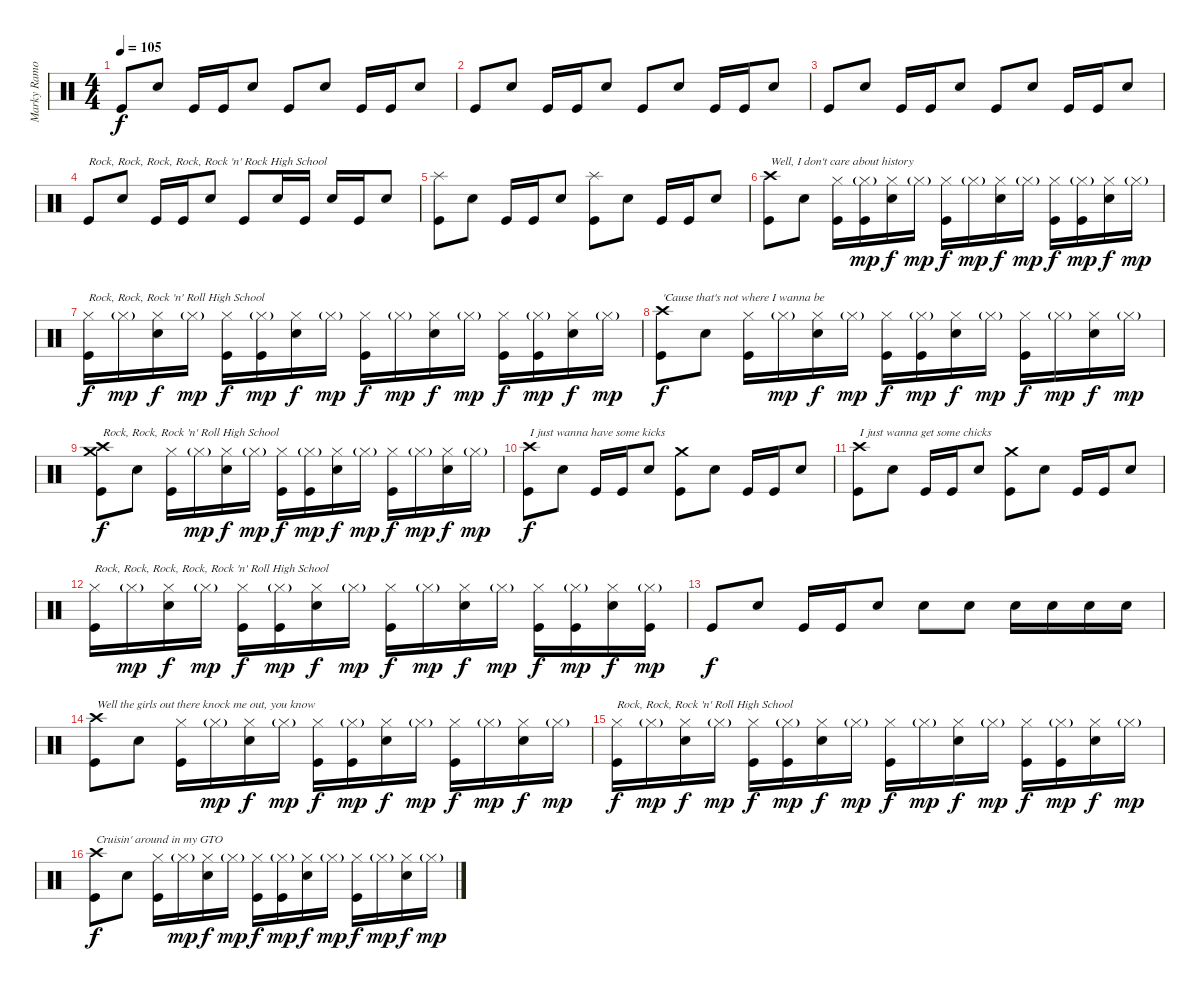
\track ("Marky Ramone - Drums" "Marky Ramo") {instrument percussion}
\staff {score}
\articulation defaults
\ts (4 4)
\tempo 105
\clef neutral
\ks c "Kick (hit)".8{dy f} "Snare (hit) 2".8 "Kick (hit)".16 "Kick (hit)".16 "Snare (hit) 2".8 "Kick (hit)".8 "Snare (hit) 2".8 "Kick (hit)".16 "Kick (hit)".16 "Snare (hit) 2".8
|
"Kick (hit)".8 "Snare (hit) 2".8 "Kick (hit)".16 "Kick (hit)".16 "Snare (hit) 2".8 "Kick (hit)".8 "Snare (hit) 2".8 "Kick (hit)".16 "Kick (hit)".16 "Snare (hit) 2".8 |
"Kick (hit)".8 "Snare (hit) 2".8 "Kick (hit)".16 "Kick (hit)".16 "Snare (hit) 2".8 "Kick (hit)".8 "Snare (hit) 2".8 "Kick (hit)".16 "Kick (hit)".16 "Snare (hit) 2".8 |
"Kick (hit)".8{txt "Rock, Rock, Rock, Rock, Rock 'n' Rock High School"} "Snare (hit) 2".8 "Kick (hit)".16 "Kick (hit)".16 "Snare (hit) 2".8 "Kick (hit)".8 "Snare (hit) 2".16 "Kick (hit)".16 "Snare (hit) 2".16 "Kick (hit)".16 "Snare (hit) 2".8 |
("Splash (hit)" "Kick (hit)").8 "Snare (hit) 2".8 "Kick (hit)".16 "Kick (hit)".16 "Snare (hit) 2".8 ("Splash (hit)" "Kick (hit)").8 "Snare (hit) 2".8 "Kick (hit)".16 "Kick (hit)".16 "Snare (hit) 2".8 |
("Crash high (hit)" "Kick (hit)").8{txt "Well, I don't care about history"} "Snare (hit) 2".8 ("Hi-Hat (closed)" "Kick (hit)").16 ("Hi-Hat (closed)"{g} "Kick (hit)").16{dy mp} ("Hi-Hat (closed)" "Snare (hit) 2").16{dy f} "Hi-Hat (closed)"{g}.16{dy mp} ("Hi-Hat (closed)" "Kick (hit)").16{dy f} "Hi-Hat (closed)"{g}.16{dy mp} ("Hi-Hat (closed)" "Snare (hit) 2").16{dy f} "Hi-Hat (closed)"{g}.16{dy mp} ("Hi-Hat (closed)" "Kick (hit)").16{dy f} ("Hi-Hat (closed)"{g} "Kick (hit)").16{dy mp} ("Hi-Hat (closed)" "Snare (hit) 2").16{dy f} "Hi-Hat (closed)"{g}.16{dy mp} |
("Hi-Hat (closed)" "Kick (hit)").16{txt "Rock, Rock, Rock 'n' Roll High School" dy f} "Hi-Hat (closed)"{g}.16{dy mp} ("Hi-Hat (closed)" "Snare (hit) 2").16{dy f} "Hi-Hat (closed)"{g}.16{dy mp} ("Hi-Hat (closed)" "Kick (hit)").16{dy f} ("Hi-Hat (closed)"{g} "Kick (hit)").16{dy mp} ("Hi-Hat (closed)" "Snare (hit) 2").16{dy f} "Hi-Hat (closed)"{g}.16{dy mp} ("Hi-Hat (closed)" "Kick (hit)").16{dy f} "Hi-Hat (closed)"{g}.16{dy mp} ("Hi-Hat (closed)" "Snare (hit) 2").16{dy f} "Hi-Hat (closed)"{g}.16{dy mp} ("Hi-Hat (closed)" "Kick (hit)").16{dy f} ("Hi-Hat (closed)"{g} "Kick (hit)").16{dy mp} ("Hi-Hat (closed)" "Snare (hit) 2").16{dy f} "Hi-Hat (closed)"{g}.16{dy mp} |
("Crash high (hit)" "Kick (hit)").8{txt "'Cause that's not where I wanna be" dy f} "Snare (hit) 2".8 ("Hi-Hat (closed)" "Kick (hit)").16 "Hi-Hat (closed)"{g}.16{dy mp} ("Hi-Hat (closed)" "Snare (hit) 2").16{dy f} "Hi-Hat (closed)"{g}.16{dy mp} ("Hi-Hat (closed)" "Kick (hit)").16{dy f} ("Hi-Hat (closed)"{g} "Kick (hit)").16{dy mp} ("Hi-Hat (closed)" "Snare (hit) 2").16{dy f} "Hi-Hat (closed)"{g}.16{dy mp} ("Hi-Hat (closed)" "Kick (hit)").16{dy f} "Hi-Hat (closed)"{g}.16{dy mp} ("Hi-Hat (closed)" "Snare (hit) 2").16{dy f} "Hi-Hat (closed)"{g}.16{dy mp} |
("Crash high (hit)" "Crash medium (hit)" "Kick (hit)").8{txt "Rock, Rock, Rock 'n' Roll High School" dy f} "Snare (hit) 2".8 ("Hi-Hat (closed)" "Kick (hit)").16 "Hi-Hat (closed)"{g}.16{dy mp} ("Hi-Hat (closed)" "Snare (hit) 2").16{dy f} "Hi-Hat (closed)"{g}.16{dy mp} ("Hi-Hat (closed)" "Kick (hit)").16{dy f} ("Hi-Hat (closed)"{g} "Kick (hit)").16{dy mp} ("Hi-Hat (closed)" "Snare (hit) 2").16{dy f} "Hi-Hat (closed)"{g}.16{dy mp} ("Hi-Hat (closed)" "Kick (hit)").16{dy f} "Hi-Hat (closed)"{g}.16{dy mp} ("Hi-Hat (closed)" "Snare (hit) 2").16{dy f} "Hi-Hat (closed)"{g}.16{dy mp} |
("Crash high (hit)" "Kick (hit)").8{txt "I just wanna have some kicks" dy f} "Snare (hit) 2".8 "Kick (hit)".16 "Kick (hit)".16 "Snare (hit) 2".8 ("Crash medium (hit)" "Kick (hit)").8 "Snare (hit) 2".8 "Kick (hit)".16 "Kick (hit)".16 "Snare (hit) 2".8 |
("Crash high (hit)" "Kick (hit)").8{txt "I just wanna get some chicks"} "Snare (hit) 2".8 "Kick (hit)".16 "Kick (hit)".16 "Snare (hit) 2".8 ("Crash medium (hit)" "Kick (hit)").8 "Snare (hit) 2".8 "Kick (hit)".16 "Kick (hit)".16 "Snare (hit) 2".8 |
("Hi-Hat (closed)" "Kick (hit)").16{txt "Rock, Rock, Rock, Rock, Rock 'n' Roll High School"} "Hi-Hat (closed)"{g}.16{dy mp} ("Hi-Hat (closed)" "Snare (hit) 2").16{dy f} "Hi-Hat (closed)"{g}.16{dy mp} ("Hi-Hat (closed)" "Kick (hit)").16{dy f} ("Hi-Hat (closed)"{g} "Kick (hit)").16{dy mp} ("Hi-Hat (closed)" "Snare (hit) 2").16{dy f} "Hi-Hat (closed)"{g}.16{dy mp} ("Hi-Hat (closed)" "Kick (hit)").16{dy f} "Hi-Hat (closed)"{g}.16{dy mp} ("Hi-Hat (closed)" "Snare (hit) 2").16{dy f} "Hi-Hat (closed)"{g}.16{dy mp} ("Hi-Hat (closed)" "Kick (hit)").16{dy f} ("Hi-Hat (closed)"{g} "Kick (hit)").16{dy mp} ("Hi-Hat (closed)" "Snare (hit) 2").16{dy f} ("Hi-Hat (closed)"{g} "Kick (hit)").16{dy mp} |
"Kick (hit)".8{dy f} "Snare (hit) 2".8 "Kick (hit)".16 "Kick (hit)".16 "Snare (hit) 2".8 "Snare (hit) 2".8 "Snare (hit) 2".8 "Snare (hit) 2".16 "Snare (hit) 2".16 "Snare (hit) 2".16 "Snare (hit) 2".16 |
("Crash high (hit)" "Kick (hit)").8{txt "Well the girls out there knock me out, you know"} "Snare (hit) 2".8 ("Hi-Hat (closed)" "Kick (hit)").16 "Hi-Hat (closed)"{g}.16{dy mp} ("Hi-Hat (closed)" "Snare (hit) 2").16{dy f} "Hi-Hat (closed)"{g}.16{dy mp} ("Hi-Hat (closed)" "Kick (hit)").16{dy f} ("Hi-Hat (closed)"{g} "Kick (hit)").16{dy mp} ("Hi-Hat (closed)" "Snare (hit) 2").16{dy f} "Hi-Hat (closed)"{g}.16{dy mp} ("Hi-Hat (closed)" "Kick (hit)").16{dy f} "Hi-Hat (closed)"{g}.16{dy mp} ("Hi-Hat (closed)" "Snare (hit) 2").16{dy f} "Hi-Hat (closed)"{g}.16{dy mp} |
("Hi-Hat (closed)" "Kick (hit)").16{txt "Rock, Rock, Rock 'n' Roll High School" dy f} "Hi-Hat (closed)"{g}.16{dy mp} ("Hi-Hat (closed)" "Snare (hit) 2").16{dy f} "Hi-Hat (closed)"{g}.16{dy mp} ("Hi-Hat (closed)" "Kick (hit)").16{dy f} ("Hi-Hat (closed)"{g} "Kick (hit)").16{dy mp} ("Hi-Hat (closed)" "Snare (hit) 2").16{dy f} "Hi-Hat (closed)"{g}.16{dy mp} ("Hi-Hat (closed)" "Kick (hit)").16{dy f} "Hi-Hat (closed)"{g}.16{dy mp} ("Hi-Hat (closed)" "Snare (hit) 2").16{dy f} "Hi-Hat (closed)"{g}.16{dy mp} ("Hi-Hat (closed)" "Kick (hit)").16{dy f} ("Hi-Hat (closed)"{g} "Kick (hit)").16{dy mp} ("Hi-Hat (closed)" "Snare (hit) 2").16{dy f} "Hi-Hat (closed)"{g}.16{dy mp} |
("Crash high (hit)" "Kick (hit)").8{txt "Cruisin' around in my GTO" dy f} "Snare (hit) 2".8 ("Hi-Hat (closed)" "Kick (hit)").16 "Hi-Hat (closed)"{g}.16{dy mp} ("Hi-Hat (closed)" "Snare (hit) 2").16{dy f} "Hi-Hat (closed)"{g}.16{dy mp} ("Hi-Hat (closed)" "Kick (hit)").16{dy f} ("Hi-Hat (closed)"{g} "Kick (hit)").16{dy mp} ("Hi-Hat (closed)" "Snare (hit) 2").16{dy f} "Hi-Hat (closed)"{g}.16{dy mp} ("Hi-Hat (closed)" "Kick (hit)").16{dy f} "Hi-Hat (closed)"{g}.16{dy mp} ("Hi-Hat (closed)" "Snare (hit) 2").16{dy f} "Hi-Hat (closed)"{g}.16{dy mp}
